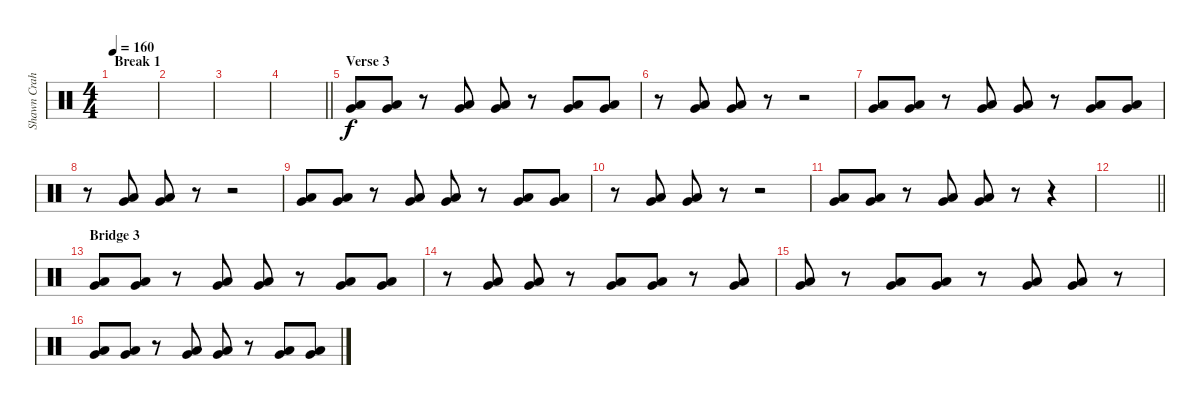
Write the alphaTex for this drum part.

\track ("Shawn Crahan" "Shawn Crah") {instrument percussion}
\staff {score}
\articulation defaults
\ts (4 4)
\section ("" "Break 1")
\tempo 160
\clef neutral
\ks c
|
|
|
\barLineRight lightlight
|
\section ("" "Verse 3")
("Very Low Tom (hit)" "Low Floor Tom (hit)").8 ("Very Low Tom (hit)" "Low Floor Tom (hit)").8 r.8 ("Very Low Tom (hit)" "Low Floor Tom (hit)").8 ("Very Low Tom (hit)" "Low Floor Tom (hit)").8 r.8 ("Very Low Tom (hit)" "Low Floor Tom (hit)").8 ("Very Low Tom (hit)" "Low Floor Tom (hit)").8 |
r.8 ("Very Low Tom (hit)" "Low Floor Tom (hit)").8 ("Very Low Tom (hit)" "Low Floor Tom (hit)").8 r.8 r.2 |
("Very Low Tom (hit)" "Low Floor Tom (hit)").8 ("Very Low Tom (hit)" "Low Floor Tom (hit)").8 r.8 ("Very Low Tom (hit)" "Low Floor Tom (hit)").8 ("Very Low Tom (hit)" "Low Floor Tom (hit)").8 r.8 ("Very Low Tom (hit)" "Low Floor Tom (hit)").8 ("Very Low Tom (hit)" "Low Floor Tom (hit)").8 |
r.8 ("Very Low Tom (hit)" "Low Floor Tom (hit)").8 ("Very Low Tom (hit)" "Low Floor Tom (hit)").8 r.8 r.2 |
("Very Low Tom (hit)" "Low Floor Tom (hit)").8 ("Very Low Tom (hit)" "Low Floor Tom (hit)").8 r.8 ("Very Low Tom (hit)" "Low Floor Tom (hit)").8 ("Very Low Tom (hit)" "Low Floor Tom (hit)").8 r.8 ("Very Low Tom (hit)" "Low Floor Tom (hit)").8 ("Very Low Tom (hit)" "Low Floor Tom (hit)").8 |
r.8 ("Very Low Tom (hit)" "Low Floor Tom (hit)").8 ("Very Low Tom (hit)" "Low Floor Tom (hit)").8 r.8 r.2 |
("Very Low Tom (hit)" "Low Floor Tom (hit)").8 ("Very Low Tom (hit)" "Low Floor Tom (hit)").8 r.8 ("Very Low Tom (hit)" "Low Floor Tom (hit)").8 ("Very Low Tom (hit)" "Low Floor Tom (hit)").8 r.8 r.4 |
\barLineRight lightlight
|
\section ("" "Bridge 3")
("Very Low Tom (hit)" "Low Floor Tom (hit)").8 ("Very Low Tom (hit)" "Low Floor Tom (hit)").8 r.8 ("Very Low Tom (hit)" "Low Floor Tom (hit)").8 ("Very Low Tom (hit)" "Low Floor Tom (hit)").8 r.8 ("Very Low Tom (hit)" "Low Floor Tom (hit)").8 ("Very Low Tom (hit)" "Low Floor Tom (hit)").8 |
r.8 ("Very Low Tom (hit)" "Low Floor Tom (hit)").8 ("Very Low Tom (hit)" "Low Floor Tom (hit)").8 r.8 ("Very Low Tom (hit)" "Low Floor Tom (hit)").8 ("Very Low Tom (hit)" "Low Floor Tom (hit)").8 r.8 ("Very Low Tom (hit)" "Low Floor Tom (hit)").8 |
("Very Low Tom (hit)" "Low Floor Tom (hit)").8 r.8 ("Very Low Tom (hit)" "Low Floor Tom (hit)").8 ("Very Low Tom (hit)" "Low Floor Tom (hit)").8 r.8 ("Very Low Tom (hit)" "Low Floor Tom (hit)").8 ("Very Low Tom (hit)" "Low Floor Tom (hit)").8 r.8 |
("Very Low Tom (hit)" "Low Floor Tom (hit)").8 ("Very Low Tom (hit)" "Low Floor Tom (hit)").8 r.8 ("Very Low Tom (hit)" "Low Floor Tom (hit)").8 ("Very Low Tom (hit)" "Low Floor Tom (hit)").8 r.8 ("Very Low Tom (hit)" "Low Floor Tom (hit)").8 ("Very Low Tom (hit)" "Low Floor Tom (hit)").8
